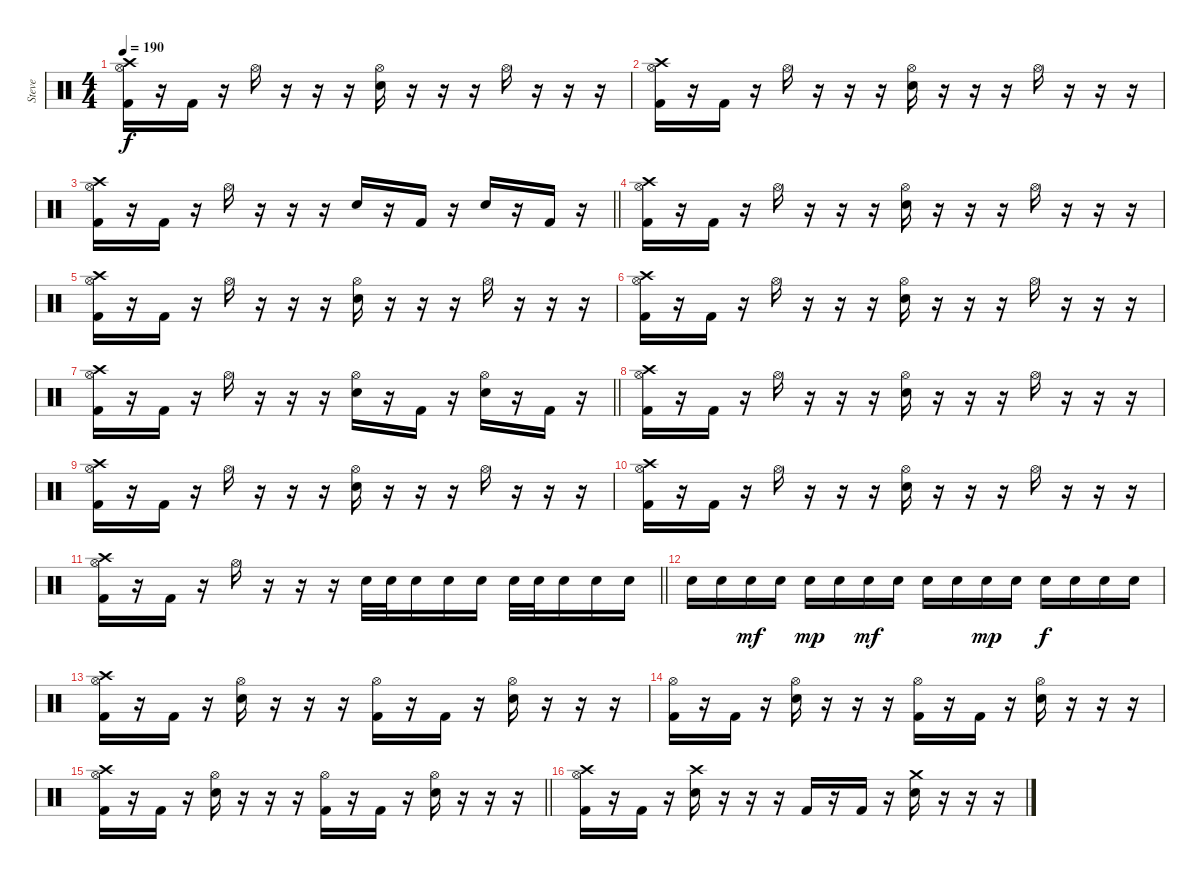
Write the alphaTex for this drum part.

\track ("Steve" "Steve") {instrument percussion}
\staff {score}
\articulation defaults
\ts (4 4)
\tempo 190
\clef neutral
\ks c
("Hi-Hat (open)" "Crash high (hit)" "Kick (hit) 2").16{dy f} r.16 "Kick (hit) 2".16 r.16 "Hi-Hat (open)".16 r.16 r.16 r.16 ("Hi-Hat (open)" "Snare (hit) 2").16 r.16 r.16 r.16 "Hi-Hat (open)".16 r.16 r.16 r.16 |
("Hi-Hat (open)" "Crash high (hit)" "Kick (hit) 2").16 r.16 "Kick (hit) 2".16 r.16 "Hi-Hat (open)".16 r.16 r.16 r.16 ("Hi-Hat (open)" "Snare (hit) 2").16 r.16 r.16 r.16 "Hi-Hat (open)".16 r.16 r.16 r.16 |
\barLineRight lightlight
("Hi-Hat (open)" "Crash high (hit)" "Kick (hit) 2").16 r.16 "Kick (hit) 2".16 r.16 "Hi-Hat (open)".16 r.16 r.16 r.16 "Snare (hit) 2".16 r.16 "Kick (hit) 2".16 r.16 "Snare (hit) 2".16 r.16 "Kick (hit) 2".16 r.16 |
("Hi-Hat (open)" "Crash high (hit)" "Kick (hit) 2").16 r.16 "Kick (hit) 2".16 r.16 "Hi-Hat (open)".16 r.16 r.16 r.16 ("Hi-Hat (open)" "Snare (hit) 2").16 r.16 r.16 r.16 "Hi-Hat (open)".16 r.16 r.16 r.16 |
("Hi-Hat (open)" "Crash high (hit)" "Kick (hit) 2").16 r.16 "Kick (hit) 2".16 r.16 "Hi-Hat (open)".16 r.16 r.16 r.16 ("Hi-Hat (open)" "Snare (hit) 2").16 r.16 r.16 r.16 "Hi-Hat (open)".16 r.16 r.16 r.16 |
("Hi-Hat (open)" "Crash high (hit)" "Kick (hit) 2").16 r.16 "Kick (hit) 2".16 r.16 "Hi-Hat (open)".16 r.16 r.16 r.16 ("Hi-Hat (open)" "Snare (hit) 2").16 r.16 r.16 r.16 "Hi-Hat (open)".16 r.16 r.16 r.16 |
\barLineRight lightlight
("Hi-Hat (open)" "Crash high (hit)" "Kick (hit) 2").16 r.16 "Kick (hit) 2".16 r.16 "Hi-Hat (open)".16 r.16 r.16 r.16 ("Hi-Hat (open)" "Snare (hit) 2").16 r.16 "Kick (hit) 2".16 r.16 ("Hi-Hat (open)" "Snare (hit) 2").16 r.16 "Kick (hit) 2".16 r.16 |
("Hi-Hat (open)" "Crash high (hit)" "Kick (hit) 2").16 r.16 "Kick (hit) 2".16 r.16 "Hi-Hat (open)".16 r.16 r.16 r.16 ("Hi-Hat (open)" "Snare (hit) 2").16 r.16 r.16 r.16 "Hi-Hat (open)".16 r.16 r.16 r.16 |
("Hi-Hat (open)" "Crash high (hit)" "Kick (hit) 2").16 r.16 "Kick (hit) 2".16 r.16 "Hi-Hat (open)".16 r.16 r.16 r.16 ("Hi-Hat (open)" "Snare (hit) 2").16 r.16 r.16 r.16 "Hi-Hat (open)".16 r.16 r.16 r.16 |
("Hi-Hat (open)" "Crash high (hit)" "Kick (hit) 2").16 r.16 "Kick (hit) 2".16 r.16 "Hi-Hat (open)".16 r.16 r.16 r.16 ("Hi-Hat (open)" "Snare (hit) 2").16 r.16 r.16 r.16 "Hi-Hat (open)".16 r.16 r.16 r.16 |
\barLineRight lightlight
("Hi-Hat (open)" "Crash high (hit)" "Kick (hit) 2").16 r.16 "Kick (hit) 2".16 r.16 "Hi-Hat (open)".16 r.16 r.16 r.16 "Snare (hit) 2".32 "Snare (hit) 2".32 "Snare (hit) 2".16 "Snare (hit) 2".16 "Snare (hit) 2".16 "Snare (hit) 2".32 "Snare (hit) 2".32 "Snare (hit) 2".16 "Snare (hit) 2".16 "Snare (hit) 2".16 |
"Snare (hit) 2".16 "Snare (hit) 2".16 "Snare (hit) 2".16{dy mf} "Snare (hit) 2".16 "Snare (hit) 2".16{dy mp} "Snare (hit) 2".16 "Snare (hit) 2".16{dy mf} "Snare (hit) 2".16 "Snare (hit) 2".16 "Snare (hit) 2".16 "Snare (hit) 2".16{dy mp} "Snare (hit) 2".16 "Snare (hit) 2".16{dy f} "Snare (hit) 2".16 "Snare (hit) 2".16 "Snare (hit) 2".16 |
("Hi-Hat (open)" "Crash high (hit)" "Kick (hit) 2").16 r.16 "Kick (hit) 2".16 r.16 ("Hi-Hat (open)" "Snare (hit) 2").16 r.16 r.16 r.16 ("Hi-Hat (open)" "Kick (hit) 2").16 r.16 "Kick (hit) 2".16 r.16 ("Hi-Hat (open)" "Snare (hit) 2").16 r.16 r.16 r.16 |
("Hi-Hat (open)" "Kick (hit) 2").16 r.16 "Kick (hit) 2".16 r.16 ("Hi-Hat (open)" "Snare (hit) 2").16 r.16 r.16 r.16 ("Hi-Hat (open)" "Kick (hit) 2").16 r.16 "Kick (hit) 2".16 r.16 ("Hi-Hat (open)" "Snare (hit) 2").16 r.16 r.16 r.16 |
\barLineRight lightlight
("Hi-Hat (open)" "Crash high (hit)" "Kick (hit) 2").16 r.16 "Kick (hit) 2".16 r.16 ("Hi-Hat (open)" "Snare (hit) 2").16 r.16 r.16 r.16 ("Hi-Hat (open)" "Kick (hit) 2").16 r.16 "Kick (hit) 2".16 r.16 ("Hi-Hat (open)" "Snare (hit) 2").16 r.16 r.16 r.16 |
("Hi-Hat (open)" "Crash high (hit)" "Kick (hit) 2").16 r.16 "Kick (hit) 2".16 r.16 ("Crash high (hit)" "Snare (hit) 2").16 r.16 r.16 r.16 "Kick (hit) 2".16 r.16 "Kick (hit) 2".16 r.16 ("Crash medium (hit)" "Snare (hit) 2").16 r.16 r.16 r.16
